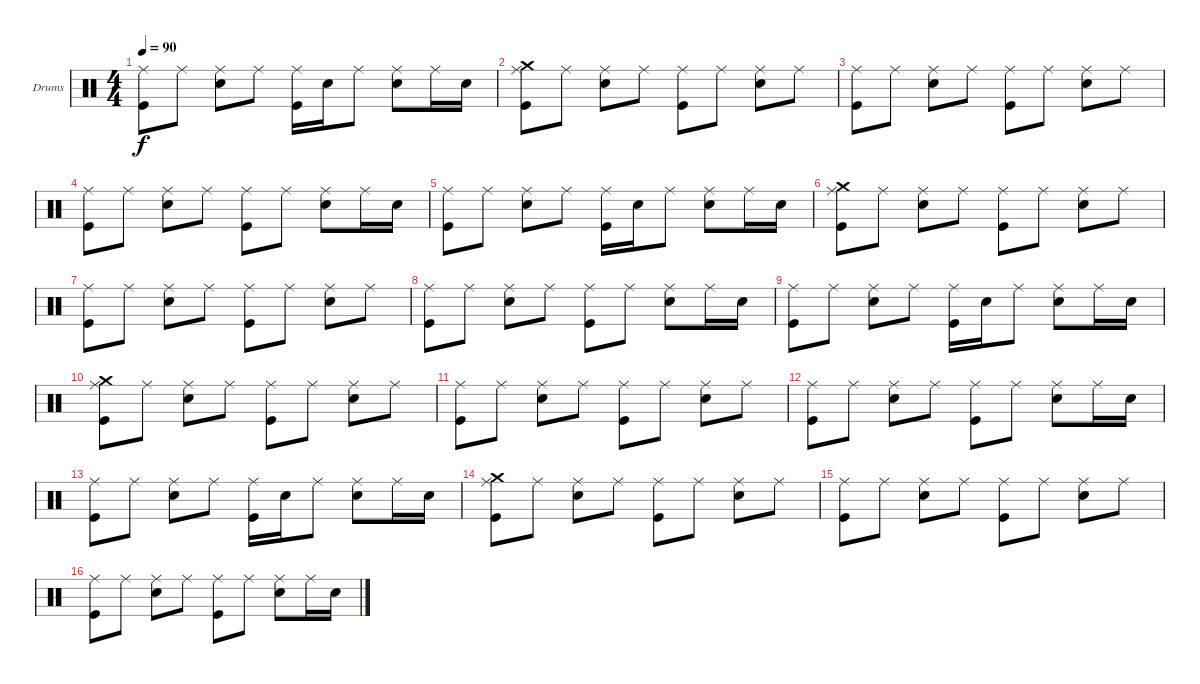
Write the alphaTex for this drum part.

\bracketExtendMode groupsimilarinstruments
\firstSystemTrackNameOrientation horizontal
\otherSystemsTrackNameOrientation horizontal
\track ("Drumkit" "Drums") {instrument percussion}
\staff {score}
\articulation defaults
\ts (4 4)
\tempo 90
\clef neutral
\ks c
("Ride (middle)" "Kick (hit)").8{dy f} "Ride (middle)".8 ("Ride (middle)" "Snare (hit) 2").8 "Ride (middle)".8 ("Ride (middle)" "Kick (hit)").16 "Snare (hit) 2".16 "Ride (middle)".8 ("Ride (middle)" "Snare (hit) 2").8 "Ride (middle)".16 "Snare (hit) 2".16 |
("Crash medium (hit)" "Ride (middle)" "Kick (hit)").8 "Ride (middle)".8 ("Ride (middle)" "Snare (hit) 2").8 "Ride (middle)".8 ("Ride (middle)" "Kick (hit)").8 "Ride (middle)".8 ("Ride (middle)" "Snare (hit) 2").8 "Ride (middle)".8 |
("Ride (middle)" "Kick (hit)").8 "Ride (middle)".8 ("Ride (middle)" "Snare (hit) 2").8 "Ride (middle)".8 ("Ride (middle)" "Kick (hit)").8 "Ride (middle)".8 ("Ride (middle)" "Snare (hit) 2").8 "Ride (middle)".8 |
("Ride (middle)" "Kick (hit)").8 "Ride (middle)".8 ("Ride (middle)" "Snare (hit) 2").8 "Ride (middle)".8 ("Ride (middle)" "Kick (hit)").8 "Ride (middle)".8 ("Ride (middle)" "Snare (hit) 2").8 "Ride (middle)".16 "Snare (hit) 2".16 |
("Ride (middle)" "Kick (hit)").8 "Ride (middle)".8 ("Ride (middle)" "Snare (hit) 2").8 "Ride (middle)".8 ("Ride (middle)" "Kick (hit)").16 "Snare (hit) 2".16 "Ride (middle)".8 ("Ride (middle)" "Snare (hit) 2").8 "Ride (middle)".16 "Snare (hit) 2".16 |
("Crash medium (hit)" "Ride (middle)" "Kick (hit)").8 "Ride (middle)".8 ("Ride (middle)" "Snare (hit) 2").8 "Ride (middle)".8 ("Ride (middle)" "Kick (hit)").8 "Ride (middle)".8 ("Ride (middle)" "Snare (hit) 2").8 "Ride (middle)".8 |
("Ride (middle)" "Kick (hit)").8 "Ride (middle)".8 ("Ride (middle)" "Snare (hit) 2").8 "Ride (middle)".8 ("Ride (middle)" "Kick (hit)").8 "Ride (middle)".8 ("Ride (middle)" "Snare (hit) 2").8 "Ride (middle)".8 |
("Ride (middle)" "Kick (hit)").8 "Ride (middle)".8 ("Ride (middle)" "Snare (hit) 2").8 "Ride (middle)".8 ("Ride (middle)" "Kick (hit)").8 "Ride (middle)".8 ("Ride (middle)" "Snare (hit) 2").8 "Ride (middle)".16 "Snare (hit) 2".16 |
("Ride (middle)" "Kick (hit)").8 "Ride (middle)".8 ("Ride (middle)" "Snare (hit) 2").8 "Ride (middle)".8 ("Ride (middle)" "Kick (hit)").16 "Snare (hit) 2".16 "Ride (middle)".8 ("Ride (middle)" "Snare (hit) 2").8 "Ride (middle)".16 "Snare (hit) 2".16 |
("Crash medium (hit)" "Ride (middle)" "Kick (hit)").8 "Ride (middle)".8 ("Ride (middle)" "Snare (hit) 2").8 "Ride (middle)".8 ("Ride (middle)" "Kick (hit)").8 "Ride (middle)".8 ("Ride (middle)" "Snare (hit) 2").8 "Ride (middle)".8 |
("Ride (middle)" "Kick (hit)").8 "Ride (middle)".8 ("Ride (middle)" "Snare (hit) 2").8 "Ride (middle)".8 ("Ride (middle)" "Kick (hit)").8 "Ride (middle)".8 ("Ride (middle)" "Snare (hit) 2").8 "Ride (middle)".8 |
("Ride (middle)" "Kick (hit)").8 "Ride (middle)".8 ("Ride (middle)" "Snare (hit) 2").8 "Ride (middle)".8 ("Ride (middle)" "Kick (hit)").8 "Ride (middle)".8 ("Ride (middle)" "Snare (hit) 2").8 "Ride (middle)".16 "Snare (hit) 2".16 |
("Ride (middle)" "Kick (hit)").8 "Ride (middle)".8 ("Ride (middle)" "Snare (hit) 2").8 "Ride (middle)".8 ("Ride (middle)" "Kick (hit)").16 "Snare (hit) 2".16 "Ride (middle)".8 ("Ride (middle)" "Snare (hit) 2").8 "Ride (middle)".16 "Snare (hit) 2".16 |
("Crash medium (hit)" "Ride (middle)" "Kick (hit)").8 "Ride (middle)".8 ("Ride (middle)" "Snare (hit) 2").8 "Ride (middle)".8 ("Ride (middle)" "Kick (hit)").8 "Ride (middle)".8 ("Ride (middle)" "Snare (hit) 2").8 "Ride (middle)".8 |
("Ride (middle)" "Kick (hit)").8 "Ride (middle)".8 ("Ride (middle)" "Snare (hit) 2").8 "Ride (middle)".8 ("Ride (middle)" "Kick (hit)").8 "Ride (middle)".8 ("Ride (middle)" "Snare (hit) 2").8 "Ride (middle)".8 |
("Ride (middle)" "Kick (hit)").8 "Ride (middle)".8 ("Ride (middle)" "Snare (hit) 2").8 "Ride (middle)".8 ("Ride (middle)" "Kick (hit)").8 "Ride (middle)".8 ("Ride (middle)" "Snare (hit) 2").8 "Ride (middle)".16 "Snare (hit) 2".16
